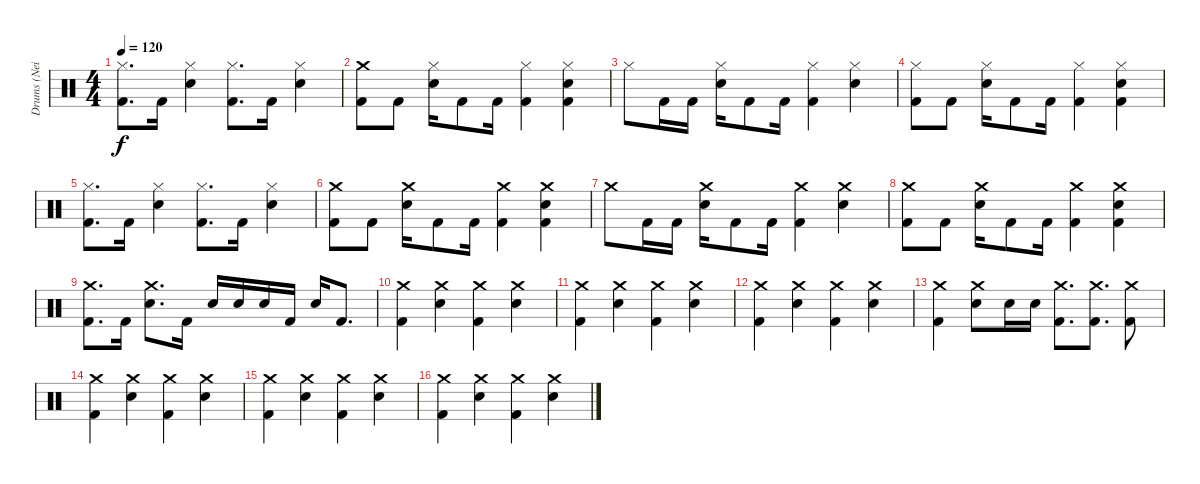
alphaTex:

\track ("Drums (Neil)" "Drums (Nei") {instrument percussion}
\staff {score}
\articulation defaults
\ts (4 4)
\tempo 120
\clef neutral
\ks c
("Hi-Hat (closed)" "Kick (hit) 2").8{d dy f} "Kick (hit) 2".16 ("Hi-Hat (closed)" "Electric Snare (hit)").4 ("Hi-Hat (closed)" "Kick (hit) 2").8{d} "Kick (hit) 2".16 ("Hi-Hat (closed)" "Electric Snare (hit)").4 |
("Crash medium (hit)" "Kick (hit) 2").8 "Kick (hit) 2".8 ("Hi-Hat (closed)" "Electric Snare (hit)").16 "Kick (hit) 2".8 "Kick (hit) 2".16 ("Hi-Hat (closed)" "Kick (hit) 2").4 ("Hi-Hat (closed)" "Electric Snare (hit)" "Kick (hit) 2").4 |
"Hi-Hat (closed)".8 "Kick (hit) 2".16 "Kick (hit) 2".16 ("Hi-Hat (closed)" "Electric Snare (hit)").16 "Kick (hit) 2".8 "Kick (hit) 2".16 ("Hi-Hat (closed)" "Kick (hit) 2").4 ("Hi-Hat (closed)" "Electric Snare (hit)").4 |
("Hi-Hat (closed)" "Kick (hit) 2").8 "Kick (hit) 2".8 ("Hi-Hat (closed)" "Electric Snare (hit)").16 "Kick (hit) 2".8 "Kick (hit) 2".16 ("Hi-Hat (closed)" "Kick (hit) 2").4 ("Hi-Hat (closed)" "Electric Snare (hit)" "Kick (hit) 2").4 |
("Hi-Hat (closed)" "Kick (hit) 2").8{d} "Kick (hit) 2".16 ("Hi-Hat (closed)" "Electric Snare (hit)").4 ("Hi-Hat (closed)" "Kick (hit) 2").8{d} "Kick (hit) 2".16 ("Hi-Hat (closed)" "Electric Snare (hit)").4 |
("Crash medium (hit)" "Kick (hit) 2").8 "Kick (hit) 2".8 ("Crash medium (hit)" "Electric Snare (hit)").16 "Kick (hit) 2".8 "Kick (hit) 2".16 ("Crash medium (hit)" "Kick (hit) 2").4 ("Crash medium (hit)" "Electric Snare (hit)" "Kick (hit) 2").4 |
"Crash medium (hit)".8 "Kick (hit) 2".16 "Kick (hit) 2".16 ("Crash medium (hit)" "Electric Snare (hit)").16 "Kick (hit) 2".8 "Kick (hit) 2".16 ("Crash medium (hit)" "Kick (hit) 2").4 ("Crash medium (hit)" "Electric Snare (hit)").4 |
("Crash medium (hit)" "Kick (hit) 2").8 "Kick (hit) 2".8 ("Crash medium (hit)" "Electric Snare (hit)").16 "Kick (hit) 2".8 "Kick (hit) 2".16 ("Crash medium (hit)" "Kick (hit) 2").4 ("Crash medium (hit)" "Electric Snare (hit)" "Kick (hit) 2").4 |
("Crash medium (hit)" "Kick (hit) 2").8{d} "Kick (hit) 2".16 ("Crash medium (hit)" "Electric Snare (hit)").8{d} "Kick (hit) 2".16 "Electric Snare (hit)".16 "Electric Snare (hit)".16 "Electric Snare (hit)".16 "Kick (hit) 2".16 "Electric Snare (hit)".16 "Kick (hit) 2".8{d} |
("Crash medium (hit)" "Kick (hit) 2").4 ("Crash medium (hit)" "Electric Snare (hit)").4 ("Crash medium (hit)" "Kick (hit) 2").4 ("Crash medium (hit)" "Electric Snare (hit)").4 |
("Crash medium (hit)" "Kick (hit) 2").4 ("Crash medium (hit)" "Electric Snare (hit)").4 ("Crash medium (hit)" "Kick (hit) 2").4 ("Crash medium (hit)" "Electric Snare (hit)").4 |
("Crash medium (hit)" "Kick (hit) 2").4 ("Crash medium (hit)" "Electric Snare (hit)").4 ("Crash medium (hit)" "Kick (hit) 2").4 ("Crash medium (hit)" "Electric Snare (hit)").4 |
("Crash medium (hit)" "Kick (hit) 2").4 ("Crash medium (hit)" "Electric Snare (hit)").8 "Electric Snare (hit)".16 "Electric Snare (hit)".16 ("Crash medium (hit)" "Kick (hit) 2").8{d} ("Crash medium (hit)" "Kick (hit) 2").8{d} ("Crash medium (hit)" "Kick (hit) 2").8 |
("Crash medium (hit)" "Kick (hit) 2").4 ("Crash medium (hit)" "Electric Snare (hit)").4 ("Crash medium (hit)" "Kick (hit) 2").4 ("Crash medium (hit)" "Electric Snare (hit)").4 |
("Crash medium (hit)" "Kick (hit) 2").4 ("Crash medium (hit)" "Electric Snare (hit)").4 ("Crash medium (hit)" "Kick (hit) 2").4 ("Crash medium (hit)" "Electric Snare (hit)").4 |
("Crash medium (hit)" "Kick (hit) 2").4 ("Crash medium (hit)" "Electric Snare (hit)").4 ("Crash medium (hit)" "Kick (hit) 2").4 ("Crash medium (hit)" "Electric Snare (hit)").4
